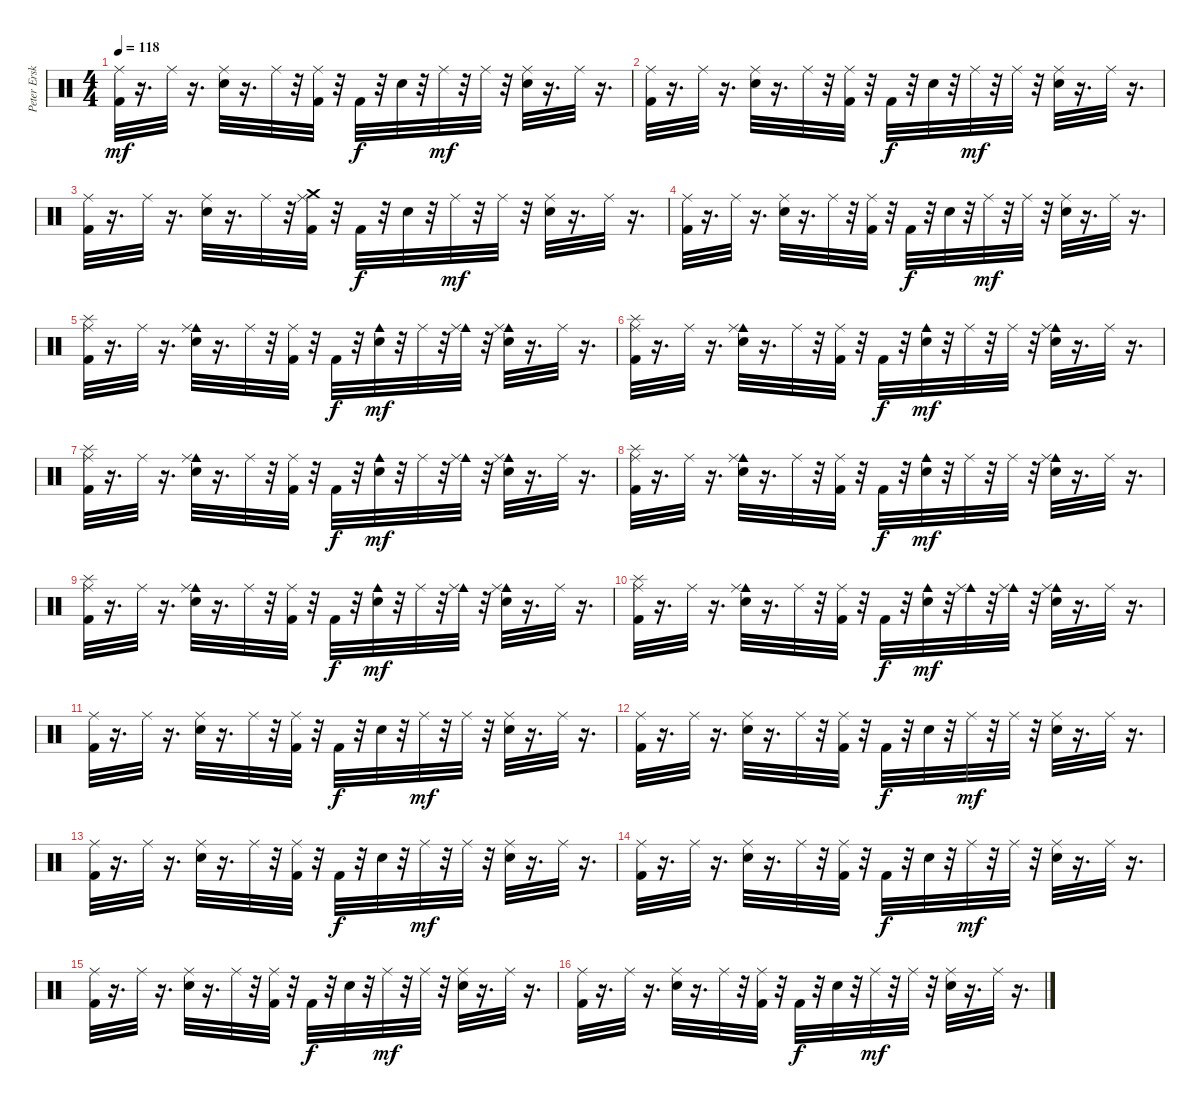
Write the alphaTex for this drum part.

\track ("Peter Erskine" "Peter Ersk") {instrument percussion}
\staff {score}
\articulation defaults
\ts (4 4)
\tempo 118
\clef neutral
\ks c
("Kick (hit) 2" "Ride (middle)").32{dy mf} r.16{d} "Ride (middle)".32 r.16{d} ("Electric Snare (hit)" "Ride (middle)").32 r.16{d} "Ride (middle)".32 r.32 ("Kick (hit) 2" "Ride (middle)").32 r.32 "Kick (hit) 2".32{dy f} r.32 "Electric Snare (hit)".32 r.32 "Ride (middle)".32{dy mf} r.32 "Ride (middle)".32 r.32 ("Electric Snare (hit)" "Ride (middle)").32 r.16{d} "Ride (middle)".32 r.16{d} |
("Kick (hit) 2" "Ride (middle)").32 r.16{d} "Ride (middle)".32 r.16{d} ("Electric Snare (hit)" "Ride (middle)").32 r.16{d} "Ride (middle)".32 r.32 ("Kick (hit) 2" "Ride (middle)").32 r.32 "Kick (hit) 2".32{dy f} r.32 "Electric Snare (hit)".32 r.32 "Ride (middle)".32{dy mf} r.32 "Ride (middle)".32 r.32 ("Electric Snare (hit)" "Ride (middle)").32 r.16{d} "Ride (middle)".32 r.16{d} |
("Kick (hit) 2" "Ride (middle)").32 r.16{d} "Ride (middle)".32 r.16{d} ("Electric Snare (hit)" "Ride (middle)").32 r.16{d} "Ride (middle)".32 r.32 ("Kick (hit) 2" "Crash medium (hit)" "Ride (middle)").32 r.32 "Kick (hit) 2".32{dy f} r.32 "Electric Snare (hit)".32 r.32 "Ride (middle)".32{dy mf} r.32 "Ride (middle)".32 r.32 ("Electric Snare (hit)" "Ride (middle)").32 r.16{d} "Ride (middle)".32 r.16{d} |
("Kick (hit) 2" "Ride (middle)").32 r.16{d} "Ride (middle)".32 r.16{d} ("Electric Snare (hit)" "Ride (middle)").32 r.16{d} "Ride (middle)".32 r.32 ("Kick (hit) 2" "Ride (middle)").32 r.32 "Kick (hit) 2".32{dy f} r.32 "Electric Snare (hit)".32 r.32 "Ride (middle)".32{dy mf} r.32 "Ride (middle)".32 r.32 ("Electric Snare (hit)" "Ride (middle)").32 r.16{d} "Ride (middle)".32 r.16{d} |
("Kick (hit) 2" "Splash (hit)" "Ride (middle)").32 r.16{d} "Ride (middle)".32 r.16{d} ("Electric Snare (hit)" "Cowbell medium (hit)" "Ride (middle)").32 r.16{d} "Ride (middle)".32 r.32 ("Kick (hit) 2" "Ride (middle)").32 r.32 "Kick (hit) 2".32{dy f} r.32 ("Electric Snare (hit)" "Cowbell medium (hit)").32{dy mf} r.32 "Ride (middle)".32 r.32 ("Cowbell medium (hit)" "Ride (middle)").32 r.32 ("Electric Snare (hit)" "Cowbell medium (hit)" "Ride (middle)").32 r.16{d} "Ride (middle)".32 r.16{d} |
("Kick (hit) 2" "Splash (hit)" "Ride (middle)").32 r.16{d} "Ride (middle)".32 r.16{d} ("Electric Snare (hit)" "Cowbell medium (hit)" "Ride (middle)").32 r.16{d} "Ride (middle)".32 r.32 ("Kick (hit) 2" "Ride (middle)").32 r.32 "Kick (hit) 2".32{dy f} r.32 ("Electric Snare (hit)" "Cowbell medium (hit)").32{dy mf} r.32 "Ride (middle)".32 r.32 "Ride (middle)".32 r.32 ("Electric Snare (hit)" "Cowbell medium (hit)" "Ride (middle)").32 r.16{d} "Ride (middle)".32 r.16{d} |
("Kick (hit) 2" "Splash (hit)" "Ride (middle)").32 r.16{d} "Ride (middle)".32 r.16{d} ("Electric Snare (hit)" "Cowbell medium (hit)" "Ride (middle)").32 r.16{d} "Ride (middle)".32 r.32 ("Kick (hit) 2" "Ride (middle)").32 r.32 "Kick (hit) 2".32{dy f} r.32 ("Electric Snare (hit)" "Cowbell medium (hit)").32{dy mf} r.32 "Ride (middle)".32 r.32 ("Cowbell medium (hit)" "Ride (middle)").32 r.32 ("Electric Snare (hit)" "Cowbell medium (hit)" "Ride (middle)").32 r.16{d} "Ride (middle)".32 r.16{d} |
("Kick (hit) 2" "Splash (hit)" "Ride (middle)").32 r.16{d} "Ride (middle)".32 r.16{d} ("Electric Snare (hit)" "Cowbell medium (hit)" "Ride (middle)").32 r.16{d} "Ride (middle)".32 r.32 ("Kick (hit) 2" "Ride (middle)").32 r.32 "Kick (hit) 2".32{dy f} r.32 ("Electric Snare (hit)" "Cowbell medium (hit)").32{dy mf} r.32 "Ride (middle)".32 r.32 "Ride (middle)".32 r.32 ("Electric Snare (hit)" "Cowbell medium (hit)" "Ride (middle)").32 r.16{d} "Ride (middle)".32 r.16{d} |
("Kick (hit) 2" "Splash (hit)" "Ride (middle)").32 r.16{d} "Ride (middle)".32 r.16{d} ("Electric Snare (hit)" "Cowbell medium (hit)" "Ride (middle)").32 r.16{d} "Ride (middle)".32 r.32 ("Kick (hit) 2" "Ride (middle)").32 r.32 "Kick (hit) 2".32{dy f} r.32 ("Electric Snare (hit)" "Cowbell medium (hit)").32{dy mf} r.32 "Ride (middle)".32 r.32 ("Cowbell medium (hit)" "Ride (middle)").32 r.32 ("Electric Snare (hit)" "Cowbell medium (hit)" "Ride (middle)").32 r.16{d} "Ride (middle)".32 r.16{d} |
("Kick (hit) 2" "Splash (hit)" "Ride (middle)").32 r.16{d} "Ride (middle)".32 r.16{d} ("Electric Snare (hit)" "Cowbell medium (hit)" "Ride (middle)").32 r.16{d} "Ride (middle)".32 r.32 ("Kick (hit) 2" "Ride (middle)").32 r.32 "Kick (hit) 2".32{dy f} r.32 ("Electric Snare (hit)" "Cowbell medium (hit)").32{dy mf} r.32 ("Cowbell medium (hit)" "Ride (middle)").32 r.32 ("Cowbell medium (hit)" "Ride (middle)").32 r.32 ("Electric Snare (hit)" "Cowbell medium (hit)" "Ride (middle)").32 r.16{d} "Ride (middle)".32 r.16{d} |
("Kick (hit) 2" "Ride (middle)").32 r.16{d} "Ride (middle)".32 r.16{d} ("Electric Snare (hit)" "Ride (middle)").32 r.16{d} "Ride (middle)".32 r.32 ("Kick (hit) 2" "Ride (middle)").32 r.32 "Kick (hit) 2".32{dy f} r.32 "Electric Snare (hit)".32 r.32 "Ride (middle)".32{dy mf} r.32 "Ride (middle)".32 r.32 ("Electric Snare (hit)" "Ride (middle)").32 r.16{d} "Ride (middle)".32 r.16{d} |
("Kick (hit) 2" "Ride (middle)").32 r.16{d} "Ride (middle)".32 r.16{d} ("Electric Snare (hit)" "Ride (middle)").32 r.16{d} "Ride (middle)".32 r.32 ("Kick (hit) 2" "Ride (middle)").32 r.32 "Kick (hit) 2".32{dy f} r.32 "Electric Snare (hit)".32 r.32 "Ride (middle)".32{dy mf} r.32 "Ride (middle)".32 r.32 ("Electric Snare (hit)" "Ride (middle)").32 r.16{d} "Ride (middle)".32 r.16{d} |
("Kick (hit) 2" "Ride (middle)").32 r.16{d} "Ride (middle)".32 r.16{d} ("Electric Snare (hit)" "Ride (middle)").32 r.16{d} "Ride (middle)".32 r.32 ("Kick (hit) 2" "Ride (middle)").32 r.32 "Kick (hit) 2".32{dy f} r.32 "Electric Snare (hit)".32 r.32 "Ride (middle)".32{dy mf} r.32 "Ride (middle)".32 r.32 ("Electric Snare (hit)" "Ride (middle)").32 r.16{d} "Ride (middle)".32 r.16{d} |
("Kick (hit) 2" "Ride (middle)").32 r.16{d} "Ride (middle)".32 r.16{d} ("Electric Snare (hit)" "Ride (middle)").32 r.16{d} "Ride (middle)".32 r.32 ("Kick (hit) 2" "Ride (middle)").32 r.32 "Kick (hit) 2".32{dy f} r.32 "Electric Snare (hit)".32 r.32 "Ride (middle)".32{dy mf} r.32 "Ride (middle)".32 r.32 ("Electric Snare (hit)" "Ride (middle)").32 r.16{d} "Ride (middle)".32 r.16{d} |
("Kick (hit) 2" "Ride (middle)").32 r.16{d} "Ride (middle)".32 r.16{d} ("Electric Snare (hit)" "Ride (middle)").32 r.16{d} "Ride (middle)".32 r.32 ("Kick (hit) 2" "Ride (middle)").32 r.32 "Kick (hit) 2".32{dy f} r.32 "Electric Snare (hit)".32 r.32 "Ride (middle)".32{dy mf} r.32 "Ride (middle)".32 r.32 ("Electric Snare (hit)" "Ride (middle)").32 r.16{d} "Ride (middle)".32 r.16{d} |
("Kick (hit) 2" "Ride (middle)").32 r.16{d} "Ride (middle)".32 r.16{d} ("Electric Snare (hit)" "Ride (middle)").32 r.16{d} "Ride (middle)".32 r.32 ("Kick (hit) 2" "Ride (middle)").32 r.32 "Kick (hit) 2".32{dy f} r.32 "Electric Snare (hit)".32 r.32 "Ride (middle)".32{dy mf} r.32 "Ride (middle)".32 r.32 ("Electric Snare (hit)" "Ride (middle)").32 r.16{d} "Ride (middle)".32 r.16{d}
